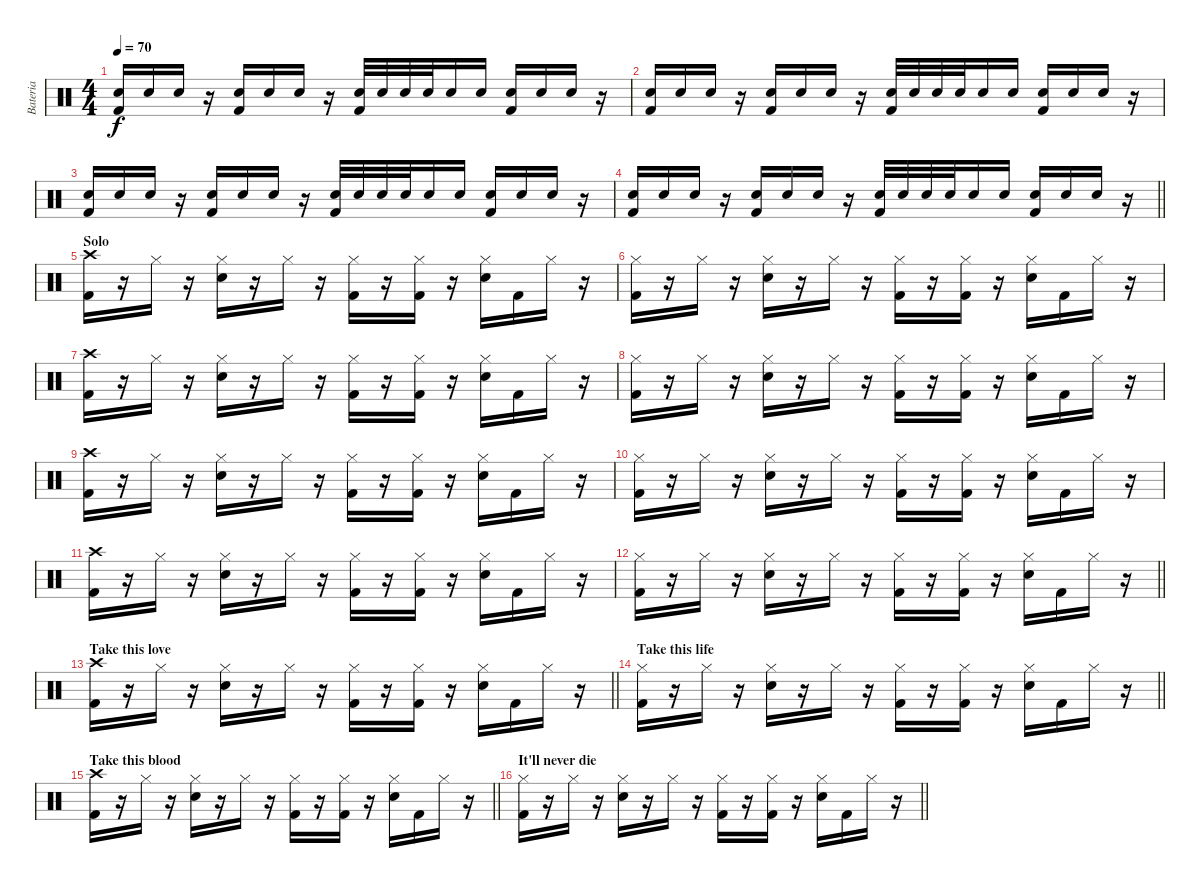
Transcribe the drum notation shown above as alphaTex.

\track ("Bateria" "Bateria") {instrument percussion}
\staff {score}
\articulation defaults
\ts (4 4)
\tempo 70
\clef neutral
\ks c
("Electric Snare (hit)" "Kick (hit) 2").16{dy f} "Electric Snare (hit)".16 "Electric Snare (hit)".16 r.16 ("Electric Snare (hit)" "Kick (hit) 2").16 "Electric Snare (hit)".16 "Electric Snare (hit)".16 r.16 ("Electric Snare (hit)" "Kick (hit) 2").32 "Electric Snare (hit)".32 "Electric Snare (hit)".32 "Electric Snare (hit)".32 "Electric Snare (hit)".16 "Electric Snare (hit)".16 ("Electric Snare (hit)" "Kick (hit) 2").16 "Electric Snare (hit)".16 "Electric Snare (hit)".16 r.16 |
("Electric Snare (hit)" "Kick (hit) 2").16 "Electric Snare (hit)".16 "Electric Snare (hit)".16 r.16 ("Electric Snare (hit)" "Kick (hit) 2").16 "Electric Snare (hit)".16 "Electric Snare (hit)".16 r.16 ("Electric Snare (hit)" "Kick (hit) 2").32 "Electric Snare (hit)".32 "Electric Snare (hit)".32 "Electric Snare (hit)".32 "Electric Snare (hit)".16 "Electric Snare (hit)".16 ("Electric Snare (hit)" "Kick (hit) 2").16 "Electric Snare (hit)".16 "Electric Snare (hit)".16 r.16 |
("Electric Snare (hit)" "Kick (hit) 2").16 "Electric Snare (hit)".16 "Electric Snare (hit)".16 r.16 ("Electric Snare (hit)" "Kick (hit) 2").16 "Electric Snare (hit)".16 "Electric Snare (hit)".16 r.16 ("Electric Snare (hit)" "Kick (hit) 2").32 "Electric Snare (hit)".32 "Electric Snare (hit)".32 "Electric Snare (hit)".32 "Electric Snare (hit)".16 "Electric Snare (hit)".16 ("Electric Snare (hit)" "Kick (hit) 2").16 "Electric Snare (hit)".16 "Electric Snare (hit)".16 r.16 |
\barLineRight lightlight
("Electric Snare (hit)" "Kick (hit) 2").16 "Electric Snare (hit)".16 "Electric Snare (hit)".16 r.16 ("Electric Snare (hit)" "Kick (hit) 2").16 "Electric Snare (hit)".16 "Electric Snare (hit)".16 r.16 ("Electric Snare (hit)" "Kick (hit) 2").32 "Electric Snare (hit)".32 "Electric Snare (hit)".32 "Electric Snare (hit)".32 "Electric Snare (hit)".16 "Electric Snare (hit)".16 ("Electric Snare (hit)" "Kick (hit) 2").16 "Electric Snare (hit)".16 "Electric Snare (hit)".16 r.16 |
\section ("" "Solo")
("Crash high (hit)" "Kick (hit) 2").16 r.16 "Hi-Hat (closed)".16 r.16 ("Hi-Hat (closed)" "Electric Snare (hit)").16 r.16 "Hi-Hat (closed)".16 r.16 ("Hi-Hat (closed)" "Kick (hit) 2").16 r.16 ("Hi-Hat (closed)" "Kick (hit) 2").16 r.16 ("Hi-Hat (closed)" "Electric Snare (hit)").16 "Kick (hit) 2".16 "Hi-Hat (closed)".16 r.16 |
("Hi-Hat (closed)" "Kick (hit) 2").16 r.16 "Hi-Hat (closed)".16 r.16 ("Hi-Hat (closed)" "Electric Snare (hit)").16 r.16 "Hi-Hat (closed)".16 r.16 ("Hi-Hat (closed)" "Kick (hit) 2").16 r.16 ("Hi-Hat (closed)" "Kick (hit) 2").16 r.16 ("Hi-Hat (closed)" "Electric Snare (hit)").16 "Kick (hit) 2".16 "Hi-Hat (closed)".16 r.16 |
("Crash high (hit)" "Kick (hit) 2").16 r.16 "Hi-Hat (closed)".16 r.16 ("Hi-Hat (closed)" "Electric Snare (hit)").16 r.16 "Hi-Hat (closed)".16 r.16 ("Hi-Hat (closed)" "Kick (hit) 2").16 r.16 ("Hi-Hat (closed)" "Kick (hit) 2").16 r.16 ("Hi-Hat (closed)" "Electric Snare (hit)").16 "Kick (hit) 2".16 "Hi-Hat (closed)".16 r.16 |
("Hi-Hat (closed)" "Kick (hit) 2").16 r.16 "Hi-Hat (closed)".16 r.16 ("Hi-Hat (closed)" "Electric Snare (hit)").16 r.16 "Hi-Hat (closed)".16 r.16 ("Hi-Hat (closed)" "Kick (hit) 2").16 r.16 ("Hi-Hat (closed)" "Kick (hit) 2").16 r.16 ("Hi-Hat (closed)" "Electric Snare (hit)").16 "Kick (hit) 2".16 "Hi-Hat (closed)".16 r.16 |
("Crash high (hit)" "Kick (hit) 2").16 r.16 "Hi-Hat (closed)".16 r.16 ("Hi-Hat (closed)" "Electric Snare (hit)").16 r.16 "Hi-Hat (closed)".16 r.16 ("Hi-Hat (closed)" "Kick (hit) 2").16 r.16 ("Hi-Hat (closed)" "Kick (hit) 2").16 r.16 ("Hi-Hat (closed)" "Electric Snare (hit)").16 "Kick (hit) 2".16 "Hi-Hat (closed)".16 r.16 |
("Hi-Hat (closed)" "Kick (hit) 2").16 r.16 "Hi-Hat (closed)".16 r.16 ("Hi-Hat (closed)" "Electric Snare (hit)").16 r.16 "Hi-Hat (closed)".16 r.16 ("Hi-Hat (closed)" "Kick (hit) 2").16 r.16 ("Hi-Hat (closed)" "Kick (hit) 2").16 r.16 ("Hi-Hat (closed)" "Electric Snare (hit)").16 "Kick (hit) 2".16 "Hi-Hat (closed)".16 r.16 |
("Crash high (hit)" "Kick (hit) 2").16 r.16 "Hi-Hat (closed)".16 r.16 ("Hi-Hat (closed)" "Electric Snare (hit)").16 r.16 "Hi-Hat (closed)".16 r.16 ("Hi-Hat (closed)" "Kick (hit) 2").16 r.16 ("Hi-Hat (closed)" "Kick (hit) 2").16 r.16 ("Hi-Hat (closed)" "Electric Snare (hit)").16 "Kick (hit) 2".16 "Hi-Hat (closed)".16 r.16 |
\barLineRight lightlight
("Hi-Hat (closed)" "Kick (hit) 2").16 r.16 "Hi-Hat (closed)".16 r.16 ("Hi-Hat (closed)" "Electric Snare (hit)").16 r.16 "Hi-Hat (closed)".16 r.16 ("Hi-Hat (closed)" "Kick (hit) 2").16 r.16 ("Hi-Hat (closed)" "Kick (hit) 2").16 r.16 ("Hi-Hat (closed)" "Electric Snare (hit)").16 "Kick (hit) 2".16 "Hi-Hat (closed)".16 r.16 |
\section ("" "Take this love")
\barLineRight lightlight
("Crash high (hit)" "Kick (hit) 2").16 r.16 "Hi-Hat (closed)".16 r.16 ("Hi-Hat (closed)" "Electric Snare (hit)").16 r.16 "Hi-Hat (closed)".16 r.16 ("Hi-Hat (closed)" "Kick (hit) 2").16 r.16 ("Hi-Hat (closed)" "Kick (hit) 2").16 r.16 ("Hi-Hat (closed)" "Electric Snare (hit)").16 "Kick (hit) 2".16 "Hi-Hat (closed)".16 r.16 |
\section ("" "Take this life")
\barLineRight lightlight
("Hi-Hat (closed)" "Kick (hit) 2").16 r.16 "Hi-Hat (closed)".16 r.16 ("Hi-Hat (closed)" "Electric Snare (hit)").16 r.16 "Hi-Hat (closed)".16 r.16 ("Hi-Hat (closed)" "Kick (hit) 2").16 r.16 ("Hi-Hat (closed)" "Kick (hit) 2").16 r.16 ("Hi-Hat (closed)" "Electric Snare (hit)").16 "Kick (hit) 2".16 "Hi-Hat (closed)".16 r.16 |
\section ("" "Take this blood")
\barLineRight lightlight
("Crash high (hit)" "Kick (hit) 2").16 r.16 "Hi-Hat (closed)".16 r.16 ("Hi-Hat (closed)" "Electric Snare (hit)").16 r.16 "Hi-Hat (closed)".16 r.16 ("Hi-Hat (closed)" "Kick (hit) 2").16 r.16 ("Hi-Hat (closed)" "Kick (hit) 2").16 r.16 ("Hi-Hat (closed)" "Electric Snare (hit)").16 "Kick (hit) 2".16 "Hi-Hat (closed)".16 r.16 |
\section ("" "It'll never die")
\barLineRight lightlight
("Hi-Hat (closed)" "Kick (hit) 2").16 r.16 "Hi-Hat (closed)".16 r.16 ("Hi-Hat (closed)" "Electric Snare (hit)").16 r.16 "Hi-Hat (closed)".16 r.16 ("Hi-Hat (closed)" "Kick (hit) 2").16 r.16 ("Hi-Hat (closed)" "Kick (hit) 2").16 r.16 ("Hi-Hat (closed)" "Electric Snare (hit)").16 "Kick (hit) 2".16 "Hi-Hat (closed)".16 r.16
